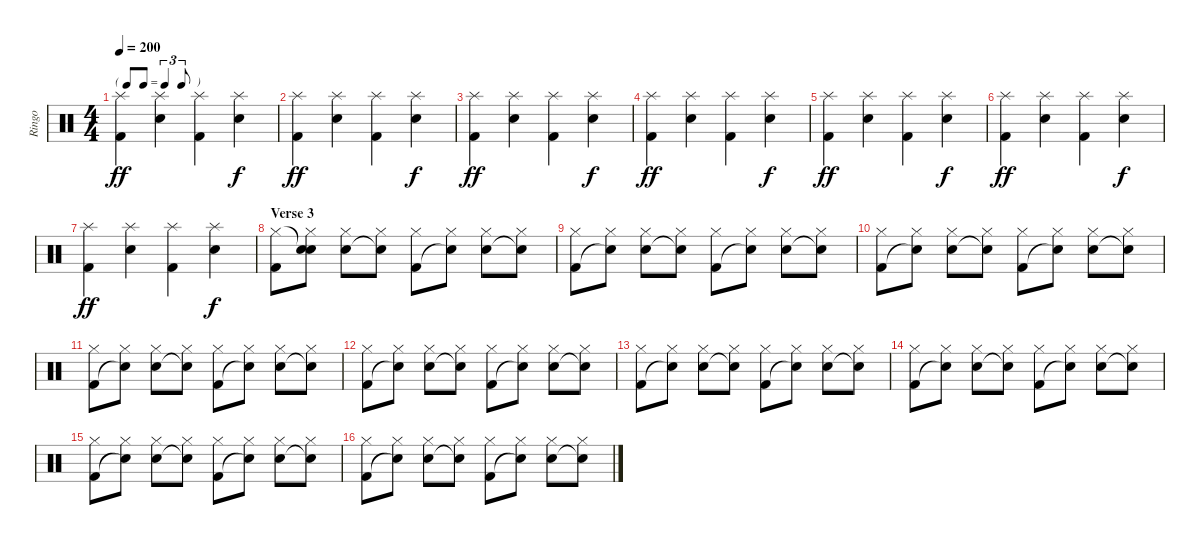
\track ("Ringo" "Ringo") {instrument percussion}
\staff {score}
\articulation defaults
\ts (4 4)
\tf triplet8th
\tempo 200
\clef neutral
\ks c
("Splash (hit)" "Kick (hit) 2").4{dy ff} ("Splash (hit)" "Electric Snare (hit)").4 ("Splash (hit)" "Kick (hit) 2").4 ("Splash (hit)" "Electric Snare (hit)").4{dy f} |
("Splash (hit)" "Kick (hit) 2").4{dy ff} ("Splash (hit)" "Electric Snare (hit)").4 ("Splash (hit)" "Kick (hit) 2").4 ("Splash (hit)" "Electric Snare (hit)").4{dy f} |
("Splash (hit)" "Kick (hit) 2").4{dy ff} ("Splash (hit)" "Electric Snare (hit)").4 ("Splash (hit)" "Kick (hit) 2").4 ("Splash (hit)" "Electric Snare (hit)").4{dy f} |
("Splash (hit)" "Kick (hit) 2").4{dy ff} ("Splash (hit)" "Electric Snare (hit)").4 ("Splash (hit)" "Kick (hit) 2").4 ("Splash (hit)" "Electric Snare (hit)").4{dy f} |
("Splash (hit)" "Kick (hit) 2").4{dy ff} ("Splash (hit)" "Electric Snare (hit)").4 ("Splash (hit)" "Kick (hit) 2").4 ("Splash (hit)" "Electric Snare (hit)").4{dy f} |
("Splash (hit)" "Kick (hit) 2").4{dy ff} ("Splash (hit)" "Electric Snare (hit)").4 ("Splash (hit)" "Kick (hit) 2").4 ("Splash (hit)" "Electric Snare (hit)").4{dy f} |
("Splash (hit)" "Kick (hit) 2").4{dy ff} ("Splash (hit)" "Electric Snare (hit)").4 ("Splash (hit)" "Kick (hit) 2").4 ("Splash (hit)" "Electric Snare (hit)").4{dy f} |
\section ("" "Verse 3")
("Hi-Hat (closed)" "Kick (hit) 2").8 ("Snare (hit)"{t} "Hi-Hat (closed)" "Snare (hit)").8 ("Hi-Hat (closed)" "Electric Snare (hit)").8 ("Hi-Hat (closed)" "Snare (hit)"{t}).8 ("Hi-Hat (closed)" "Kick (hit) 2").8 ("Hi-Hat (closed)" "Snare (hit)"{t}).8 ("Hi-Hat (closed)" "Electric Snare (hit)").8 ("Hi-Hat (closed)" "Snare (hit)"{t}).8 |
("Hi-Hat (closed)" "Kick (hit) 2").8 ("Hi-Hat (closed)" "Snare (hit)"{t}).8 ("Hi-Hat (closed)" "Electric Snare (hit)").8 ("Hi-Hat (closed)" "Snare (hit)"{t}).8 ("Hi-Hat (closed)" "Kick (hit) 2").8 ("Hi-Hat (closed)" "Snare (hit)"{t}).8 ("Hi-Hat (closed)" "Electric Snare (hit)").8 ("Hi-Hat (closed)" "Snare (hit)"{t}).8 |
("Hi-Hat (closed)" "Kick (hit) 2").8 ("Hi-Hat (closed)" "Snare (hit)"{t}).8 ("Hi-Hat (closed)" "Electric Snare (hit)").8 ("Hi-Hat (closed)" "Snare (hit)"{t}).8 ("Hi-Hat (closed)" "Kick (hit) 2").8 ("Hi-Hat (closed)" "Snare (hit)"{t}).8 ("Hi-Hat (closed)" "Electric Snare (hit)").8 ("Hi-Hat (closed)" "Snare (hit)"{t}).8 |
("Hi-Hat (closed)" "Kick (hit) 2").8 ("Hi-Hat (closed)" "Snare (hit)"{t}).8 ("Hi-Hat (closed)" "Electric Snare (hit)").8 ("Hi-Hat (closed)" "Snare (hit)"{t}).8 ("Hi-Hat (closed)" "Kick (hit) 2").8 ("Hi-Hat (closed)" "Snare (hit)"{t}).8 ("Hi-Hat (closed)" "Electric Snare (hit)").8 ("Hi-Hat (closed)" "Snare (hit)"{t}).8 |
("Hi-Hat (closed)" "Kick (hit) 2").8 ("Hi-Hat (closed)" "Snare (hit)"{t}).8 ("Hi-Hat (closed)" "Electric Snare (hit)").8 ("Hi-Hat (closed)" "Snare (hit)"{t}).8 ("Hi-Hat (closed)" "Kick (hit) 2").8 ("Hi-Hat (closed)" "Snare (hit)"{t}).8 ("Hi-Hat (closed)" "Electric Snare (hit)").8 ("Hi-Hat (closed)" "Snare (hit)"{t}).8 |
("Hi-Hat (closed)" "Kick (hit) 2").8 ("Hi-Hat (closed)" "Snare (hit)"{t}).8 ("Hi-Hat (closed)" "Electric Snare (hit)").8 ("Hi-Hat (closed)" "Snare (hit)"{t}).8 ("Hi-Hat (closed)" "Kick (hit) 2").8 ("Hi-Hat (closed)" "Snare (hit)"{t}).8 ("Hi-Hat (closed)" "Electric Snare (hit)").8 ("Hi-Hat (closed)" "Snare (hit)"{t}).8 |
("Hi-Hat (closed)" "Kick (hit) 2").8 ("Hi-Hat (closed)" "Snare (hit)"{t}).8 ("Hi-Hat (closed)" "Electric Snare (hit)").8 ("Hi-Hat (closed)" "Snare (hit)"{t}).8 ("Hi-Hat (closed)" "Kick (hit) 2").8 ("Hi-Hat (closed)" "Snare (hit)"{t}).8 ("Hi-Hat (closed)" "Electric Snare (hit)").8 ("Hi-Hat (closed)" "Snare (hit)"{t}).8 |
("Hi-Hat (closed)" "Kick (hit) 2").8 ("Hi-Hat (closed)" "Snare (hit)"{t}).8 ("Hi-Hat (closed)" "Electric Snare (hit)").8 ("Hi-Hat (closed)" "Snare (hit)"{t}).8 ("Hi-Hat (closed)" "Kick (hit) 2").8 ("Hi-Hat (closed)" "Snare (hit)"{t}).8 ("Hi-Hat (closed)" "Electric Snare (hit)").8 ("Hi-Hat (closed)" "Snare (hit)"{t}).8 |
("Hi-Hat (closed)" "Kick (hit) 2").8 ("Hi-Hat (closed)" "Snare (hit)"{t}).8 ("Hi-Hat (closed)" "Electric Snare (hit)").8 ("Hi-Hat (closed)" "Snare (hit)"{t}).8 ("Hi-Hat (closed)" "Kick (hit) 2").8 ("Hi-Hat (closed)" "Snare (hit)"{t}).8 ("Hi-Hat (closed)" "Electric Snare (hit)").8 ("Hi-Hat (closed)" "Snare (hit)"{t}).8
